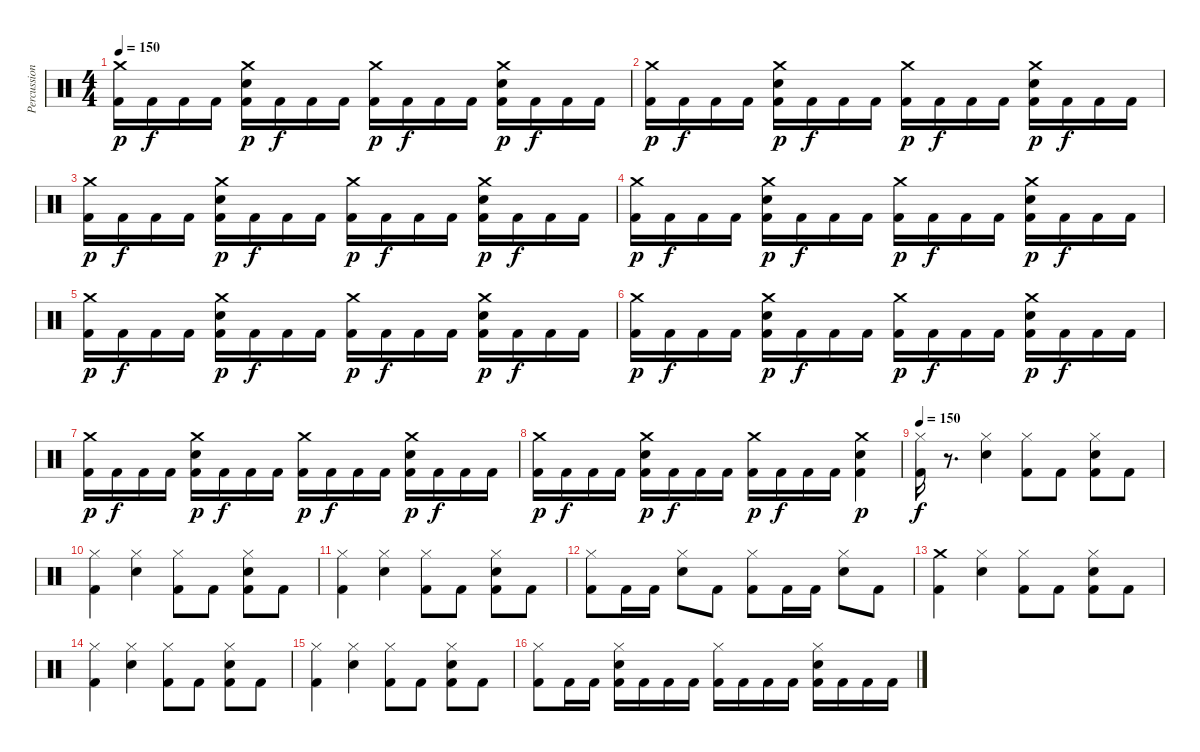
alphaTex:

\track ("Percussions" "Percussion") {instrument percussion}
\staff {score}
\articulation defaults
\ts (4 4)
\tempo 150
\clef neutral
\ks c
("Crash medium (hit)" "Kick (hit) 2").16{dy p} "Kick (hit) 2".16{dy f} "Kick (hit) 2".16 "Kick (hit) 2".16 ("Crash medium (hit)" "Electric Snare (hit)" "Kick (hit) 2").16{dy p} "Kick (hit) 2".16{dy f} "Kick (hit) 2".16 "Kick (hit) 2".16 ("Crash medium (hit)" "Kick (hit) 2").16{dy p} "Kick (hit) 2".16{dy f} "Kick (hit) 2".16 "Kick (hit) 2".16 ("Crash medium (hit)" "Electric Snare (hit)" "Kick (hit) 2").16{dy p} "Kick (hit) 2".16{dy f} "Kick (hit) 2".16 "Kick (hit) 2".16 |
("Crash medium (hit)" "Kick (hit) 2").16{dy p} "Kick (hit) 2".16{dy f} "Kick (hit) 2".16 "Kick (hit) 2".16 ("Crash medium (hit)" "Electric Snare (hit)" "Kick (hit) 2").16{dy p} "Kick (hit) 2".16{dy f} "Kick (hit) 2".16 "Kick (hit) 2".16 ("Crash medium (hit)" "Kick (hit) 2").16{dy p} "Kick (hit) 2".16{dy f} "Kick (hit) 2".16 "Kick (hit) 2".16 ("Crash medium (hit)" "Electric Snare (hit)" "Kick (hit) 2").16{dy p} "Kick (hit) 2".16{dy f} "Kick (hit) 2".16 "Kick (hit) 2".16 |
("Crash medium (hit)" "Kick (hit) 2").16{dy p} "Kick (hit) 2".16{dy f} "Kick (hit) 2".16 "Kick (hit) 2".16 ("Crash medium (hit)" "Electric Snare (hit)" "Kick (hit) 2").16{dy p} "Kick (hit) 2".16{dy f} "Kick (hit) 2".16 "Kick (hit) 2".16 ("Crash medium (hit)" "Kick (hit) 2").16{dy p} "Kick (hit) 2".16{dy f} "Kick (hit) 2".16 "Kick (hit) 2".16 ("Crash medium (hit)" "Electric Snare (hit)" "Kick (hit) 2").16{dy p} "Kick (hit) 2".16{dy f} "Kick (hit) 2".16 "Kick (hit) 2".16 |
("Crash medium (hit)" "Kick (hit) 2").16{dy p} "Kick (hit) 2".16{dy f} "Kick (hit) 2".16 "Kick (hit) 2".16 ("Crash medium (hit)" "Electric Snare (hit)" "Kick (hit) 2").16{dy p} "Kick (hit) 2".16{dy f} "Kick (hit) 2".16 "Kick (hit) 2".16 ("Crash medium (hit)" "Kick (hit) 2").16{dy p} "Kick (hit) 2".16{dy f} "Kick (hit) 2".16 "Kick (hit) 2".16 ("Crash medium (hit)" "Electric Snare (hit)" "Kick (hit) 2").16{dy p} "Kick (hit) 2".16{dy f} "Kick (hit) 2".16 "Kick (hit) 2".16 |
("Crash medium (hit)" "Kick (hit) 2").16{dy p} "Kick (hit) 2".16{dy f} "Kick (hit) 2".16 "Kick (hit) 2".16 ("Crash medium (hit)" "Electric Snare (hit)" "Kick (hit) 2").16{dy p} "Kick (hit) 2".16{dy f} "Kick (hit) 2".16 "Kick (hit) 2".16 ("Crash medium (hit)" "Kick (hit) 2").16{dy p} "Kick (hit) 2".16{dy f} "Kick (hit) 2".16 "Kick (hit) 2".16 ("Crash medium (hit)" "Electric Snare (hit)" "Kick (hit) 2").16{dy p} "Kick (hit) 2".16{dy f} "Kick (hit) 2".16 "Kick (hit) 2".16 |
("Crash medium (hit)" "Kick (hit) 2").16{dy p} "Kick (hit) 2".16{dy f} "Kick (hit) 2".16 "Kick (hit) 2".16 ("Crash medium (hit)" "Electric Snare (hit)" "Kick (hit) 2").16{dy p} "Kick (hit) 2".16{dy f} "Kick (hit) 2".16 "Kick (hit) 2".16 ("Crash medium (hit)" "Kick (hit) 2").16{dy p} "Kick (hit) 2".16{dy f} "Kick (hit) 2".16 "Kick (hit) 2".16 ("Crash medium (hit)" "Electric Snare (hit)" "Kick (hit) 2").16{dy p} "Kick (hit) 2".16{dy f} "Kick (hit) 2".16 "Kick (hit) 2".16 |
("Crash medium (hit)" "Kick (hit) 2").16{dy p} "Kick (hit) 2".16{dy f} "Kick (hit) 2".16 "Kick (hit) 2".16 ("Crash medium (hit)" "Electric Snare (hit)" "Kick (hit) 2").16{dy p} "Kick (hit) 2".16{dy f} "Kick (hit) 2".16 "Kick (hit) 2".16 ("Crash medium (hit)" "Kick (hit) 2").16{dy p} "Kick (hit) 2".16{dy f} "Kick (hit) 2".16 "Kick (hit) 2".16 ("Crash medium (hit)" "Electric Snare (hit)" "Kick (hit) 2").16{dy p} "Kick (hit) 2".16{dy f} "Kick (hit) 2".16 "Kick (hit) 2".16 |
("Crash medium (hit)" "Kick (hit) 2").16{dy p} "Kick (hit) 2".16{dy f} "Kick (hit) 2".16 "Kick (hit) 2".16 ("Crash medium (hit)" "Electric Snare (hit)" "Kick (hit) 2").16{dy p} "Kick (hit) 2".16{dy f} "Kick (hit) 2".16 "Kick (hit) 2".16 ("Crash medium (hit)" "Kick (hit) 2").16{dy p} "Kick (hit) 2".16{dy f} "Kick (hit) 2".16 "Kick (hit) 2".16 ("Crash medium (hit)" "Electric Snare (hit)" "Kick (hit) 2").4{dy p} |
\tempo 150
("Hi-Hat (closed)" "Kick (hit) 2").16{dy f} r.8{d} ("Electric Snare (hit)" "Hi-Hat (closed)").4 ("Hi-Hat (closed)" "Kick (hit) 2").8 "Kick (hit) 2".8 ("Electric Snare (hit)" "Hi-Hat (closed)" "Kick (hit) 2").8 "Kick (hit) 2".8 |
("Hi-Hat (closed)" "Kick (hit) 2").4 ("Electric Snare (hit)" "Hi-Hat (closed)").4 ("Hi-Hat (closed)" "Kick (hit) 2").8 "Kick (hit) 2".8 ("Electric Snare (hit)" "Hi-Hat (closed)" "Kick (hit) 2").8 "Kick (hit) 2".8 |
("Hi-Hat (closed)" "Kick (hit) 2").4 ("Electric Snare (hit)" "Hi-Hat (closed)").4 ("Hi-Hat (closed)" "Kick (hit) 2").8 "Kick (hit) 2".8 ("Electric Snare (hit)" "Hi-Hat (closed)" "Kick (hit) 2").8 "Kick (hit) 2".8 |
("Hi-Hat (closed)" "Kick (hit) 2").8 "Kick (hit) 2".16 "Kick (hit) 2".16 ("Electric Snare (hit)" "Hi-Hat (closed)").8 "Kick (hit) 2".8 ("Hi-Hat (closed)" "Kick (hit) 2").8 "Kick (hit) 2".16 "Kick (hit) 2".16 ("Electric Snare (hit)" "Hi-Hat (closed)").8 "Kick (hit) 2".8 |
("Crash medium (hit)" "Kick (hit) 2").4 ("Electric Snare (hit)" "Hi-Hat (closed)").4 ("Hi-Hat (closed)" "Kick (hit) 2").8 "Kick (hit) 2".8 ("Electric Snare (hit)" "Hi-Hat (closed)" "Kick (hit) 2").8 "Kick (hit) 2".8 |
("Hi-Hat (closed)" "Kick (hit) 2").4 ("Electric Snare (hit)" "Hi-Hat (closed)").4 ("Hi-Hat (closed)" "Kick (hit) 2").8 "Kick (hit) 2".8 ("Electric Snare (hit)" "Hi-Hat (closed)" "Kick (hit) 2").8 "Kick (hit) 2".8 |
("Hi-Hat (closed)" "Kick (hit) 2").4 ("Electric Snare (hit)" "Hi-Hat (closed)").4 ("Hi-Hat (closed)" "Kick (hit) 2").8 "Kick (hit) 2".8 ("Electric Snare (hit)" "Hi-Hat (closed)" "Kick (hit) 2").8 "Kick (hit) 2".8 |
("Hi-Hat (closed)" "Kick (hit) 2").8 "Kick (hit) 2".16 "Kick (hit) 2".16 ("Electric Snare (hit)" "Hi-Hat (closed)" "Kick (hit) 2").16 "Kick (hit) 2".16 "Kick (hit) 2".16 "Kick (hit) 2".16 ("Hi-Hat (closed)" "Kick (hit) 2").16 "Kick (hit) 2".16 "Kick (hit) 2".16 "Kick (hit) 2".16 ("Electric Snare (hit)" "Hi-Hat (closed)" "Kick (hit) 2").16 "Kick (hit) 2".16 "Kick (hit) 2".16 "Kick (hit) 2".16
